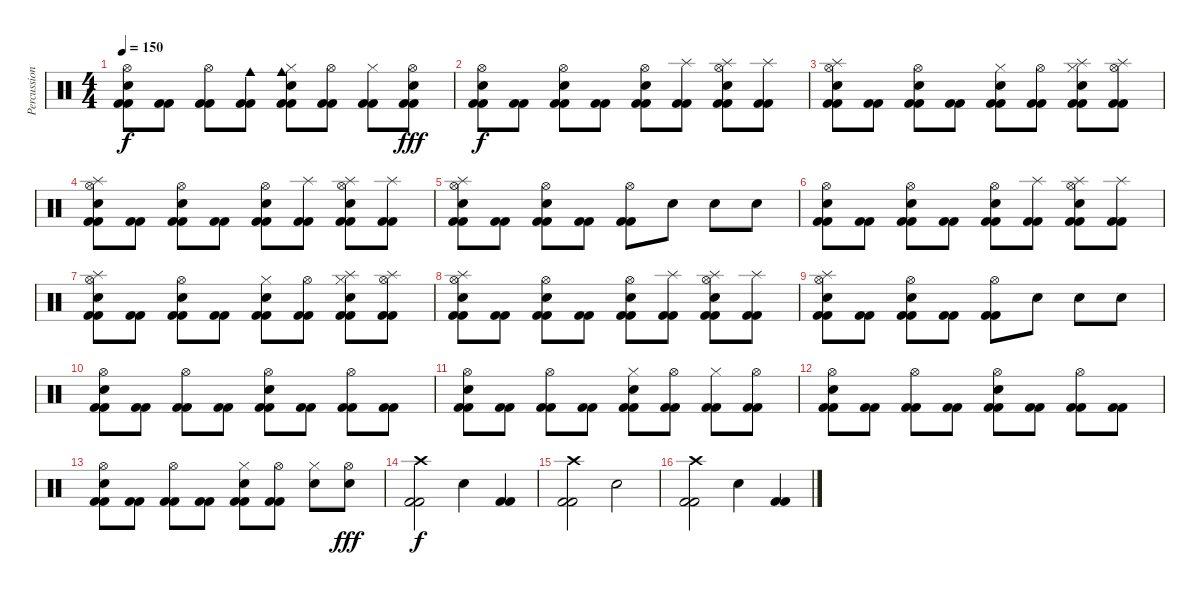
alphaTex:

\track ("Percussions" "Percussion") {instrument percussion}
\staff {score}
\articulation defaults
\ts (4 4)
\tempo 150
\clef neutral
\ks c
("Kick (hit) 2" "Kick (hit) 2" "Electric Snare (hit)" "Hi-Hat (open)").8{dy f} ("Kick (hit) 2" "Kick (hit) 2").8 ("Kick (hit) 2" "Kick (hit) 2" "Hi-Hat (open)").8 ("Kick (hit) 2" "Kick (hit) 2" "Cowbell medium (hit)").8 ("Kick (hit) 2" "Kick (hit) 2" "Electric Snare (hit)" "Cowbell medium (hit)" "Hi-Hat (closed)").8 ("Kick (hit) 2" "Kick (hit) 2" "Hi-Hat (open)").8 ("Kick (hit) 2" "Kick (hit) 2" "Hi-Hat (closed)").8 ("Kick (hit) 2" "Kick (hit) 2" "Electric Snare (hit)" "Hi-Hat (open)").8{dy fff} |
("Kick (hit) 2" "Kick (hit) 2" "Electric Snare (hit)" "Hi-Hat (open)").8{dy f} ("Kick (hit) 2" "Kick (hit) 2").8 ("Kick (hit) 2" "Kick (hit) 2" "Electric Snare (hit)" "Hi-Hat (open)").8 ("Kick (hit) 2" "Kick (hit) 2").8 ("Kick (hit) 2" "Kick (hit) 2" "Electric Snare (hit)" "Hi-Hat (open)").8 ("Kick (hit) 2" "Kick (hit) 2" "Splash (hit)").8 ("Kick (hit) 2" "Kick (hit) 2" "Electric Snare (hit)" "Splash (hit)" "Hi-Hat (open)").8 ("Kick (hit) 2" "Kick (hit) 2" "Splash (hit)").8 |
("Kick (hit) 2" "Kick (hit) 2" "Electric Snare (hit)" "Splash (hit)" "Hi-Hat (open)").8 ("Kick (hit) 2" "Kick (hit) 2").8 ("Kick (hit) 2" "Kick (hit) 2" "Electric Snare (hit)" "Hi-Hat (open)").8 ("Kick (hit) 2" "Kick (hit) 2").8 ("Kick (hit) 2" "Kick (hit) 2" "Electric Snare (hit)" "Hi-Hat (closed)").8 ("Kick (hit) 2" "Kick (hit) 2" "Hi-Hat (open)").8 ("Kick (hit) 2" "Kick (hit) 2" "Electric Snare (hit)" "Splash (hit)" "Hi-Hat (closed)").8 ("Kick (hit) 2" "Kick (hit) 2" "Splash (hit)" "Hi-Hat (open)").8 |
("Kick (hit) 2" "Kick (hit) 2" "Electric Snare (hit)" "Splash (hit)" "Hi-Hat (open)").8 ("Kick (hit) 2" "Kick (hit) 2").8 ("Kick (hit) 2" "Kick (hit) 2" "Electric Snare (hit)" "Hi-Hat (open)").8 ("Kick (hit) 2" "Kick (hit) 2").8 ("Kick (hit) 2" "Kick (hit) 2" "Electric Snare (hit)" "Hi-Hat (open)").8 ("Kick (hit) 2" "Kick (hit) 2" "Splash (hit)").8 ("Kick (hit) 2" "Kick (hit) 2" "Electric Snare (hit)" "Splash (hit)" "Hi-Hat (open)").8 ("Kick (hit) 2" "Kick (hit) 2" "Splash (hit)").8 |
("Kick (hit) 2" "Kick (hit) 2" "Electric Snare (hit)" "Splash (hit)" "Hi-Hat (open)").8 ("Kick (hit) 2" "Kick (hit) 2").8 ("Kick (hit) 2" "Kick (hit) 2" "Electric Snare (hit)" "Hi-Hat (open)").8 ("Kick (hit) 2" "Kick (hit) 2").8 ("Kick (hit) 2" "Kick (hit) 2" "Hi-Hat (open)").8 "Electric Snare (hit)".8 "Electric Snare (hit)".8 "Electric Snare (hit)".8 |
("Kick (hit) 2" "Kick (hit) 2" "Electric Snare (hit)" "Hi-Hat (open)").8 ("Kick (hit) 2" "Kick (hit) 2").8 ("Kick (hit) 2" "Kick (hit) 2" "Electric Snare (hit)" "Hi-Hat (open)").8 ("Kick (hit) 2" "Kick (hit) 2").8 ("Kick (hit) 2" "Kick (hit) 2" "Electric Snare (hit)" "Hi-Hat (open)").8 ("Kick (hit) 2" "Kick (hit) 2" "Splash (hit)").8 ("Kick (hit) 2" "Kick (hit) 2" "Electric Snare (hit)" "Splash (hit)" "Hi-Hat (open)").8 ("Kick (hit) 2" "Kick (hit) 2" "Splash (hit)").8 |
("Kick (hit) 2" "Kick (hit) 2" "Electric Snare (hit)" "Splash (hit)" "Hi-Hat (open)").8 ("Kick (hit) 2" "Kick (hit) 2").8 ("Kick (hit) 2" "Kick (hit) 2" "Electric Snare (hit)" "Hi-Hat (open)").8 ("Kick (hit) 2" "Kick (hit) 2").8 ("Kick (hit) 2" "Kick (hit) 2" "Electric Snare (hit)" "Hi-Hat (closed)").8 ("Kick (hit) 2" "Kick (hit) 2" "Hi-Hat (open)").8 ("Kick (hit) 2" "Kick (hit) 2" "Electric Snare (hit)" "Splash (hit)" "Hi-Hat (closed)").8 ("Kick (hit) 2" "Kick (hit) 2" "Splash (hit)" "Hi-Hat (open)").8 |
("Kick (hit) 2" "Kick (hit) 2" "Electric Snare (hit)" "Splash (hit)" "Hi-Hat (open)").8 ("Kick (hit) 2" "Kick (hit) 2").8 ("Kick (hit) 2" "Kick (hit) 2" "Electric Snare (hit)" "Hi-Hat (open)").8 ("Kick (hit) 2" "Kick (hit) 2").8 ("Kick (hit) 2" "Kick (hit) 2" "Electric Snare (hit)" "Hi-Hat (open)").8 ("Kick (hit) 2" "Kick (hit) 2" "Splash (hit)").8 ("Kick (hit) 2" "Kick (hit) 2" "Electric Snare (hit)" "Splash (hit)" "Hi-Hat (open)").8 ("Kick (hit) 2" "Kick (hit) 2" "Splash (hit)").8 |
("Kick (hit) 2" "Kick (hit) 2" "Electric Snare (hit)" "Splash (hit)" "Hi-Hat (open)").8 ("Kick (hit) 2" "Kick (hit) 2").8 ("Kick (hit) 2" "Kick (hit) 2" "Electric Snare (hit)" "Hi-Hat (open)").8 ("Kick (hit) 2" "Kick (hit) 2").8 ("Kick (hit) 2" "Kick (hit) 2" "Hi-Hat (open)").8 "Electric Snare (hit)".8 "Electric Snare (hit)".8 "Electric Snare (hit)".8 |
("Kick (hit) 2" "Kick (hit) 2" "Electric Snare (hit)" "Hi-Hat (open)").8 ("Kick (hit) 2" "Kick (hit) 2").8 ("Kick (hit) 2" "Kick (hit) 2" "Hi-Hat (open)").8 ("Kick (hit) 2" "Kick (hit) 2").8 ("Kick (hit) 2" "Kick (hit) 2" "Electric Snare (hit)" "Hi-Hat (open)").8 ("Kick (hit) 2" "Kick (hit) 2").8 ("Kick (hit) 2" "Kick (hit) 2" "Hi-Hat (open)").8 ("Kick (hit) 2" "Kick (hit) 2").8 |
("Kick (hit) 2" "Kick (hit) 2" "Electric Snare (hit)" "Hi-Hat (open)").8 ("Kick (hit) 2" "Kick (hit) 2").8 ("Kick (hit) 2" "Kick (hit) 2" "Hi-Hat (open)").8 ("Kick (hit) 2" "Kick (hit) 2").8 ("Kick (hit) 2" "Kick (hit) 2" "Electric Snare (hit)" "Hi-Hat (closed)").8 ("Kick (hit) 2" "Kick (hit) 2" "Hi-Hat (open)").8 ("Kick (hit) 2" "Kick (hit) 2" "Hi-Hat (closed)").8 ("Kick (hit) 2" "Kick (hit) 2" "Hi-Hat (open)").8 |
("Kick (hit) 2" "Kick (hit) 2" "Electric Snare (hit)" "Hi-Hat (open)").8 ("Kick (hit) 2" "Kick (hit) 2").8 ("Kick (hit) 2" "Kick (hit) 2" "Hi-Hat (open)").8 ("Kick (hit) 2" "Kick (hit) 2").8 ("Kick (hit) 2" "Kick (hit) 2" "Electric Snare (hit)" "Hi-Hat (open)").8 ("Kick (hit) 2" "Kick (hit) 2").8 ("Kick (hit) 2" "Kick (hit) 2" "Hi-Hat (open)").8 ("Kick (hit) 2" "Kick (hit) 2").8 |
("Kick (hit) 2" "Kick (hit) 2" "Electric Snare (hit)" "Hi-Hat (open)").8 ("Kick (hit) 2" "Kick (hit) 2").8 ("Kick (hit) 2" "Kick (hit) 2" "Hi-Hat (open)").8 ("Kick (hit) 2" "Kick (hit) 2").8 ("Kick (hit) 2" "Kick (hit) 2" "Electric Snare (hit)" "Hi-Hat (closed)").8 ("Kick (hit) 2" "Kick (hit) 2" "Hi-Hat (open)").8 ("Electric Snare (hit)" "Hi-Hat (closed)").8 ("Electric Snare (hit)" "Hi-Hat (open)").8{dy fff} |
("Kick (hit) 2" "Kick (hit) 2" "Crash high (hit)").2{dy f} "Electric Snare (hit)".4 ("Kick (hit) 2" "Kick (hit) 2").4 |
("Kick (hit) 2" "Kick (hit) 2" "Crash high (hit)").2 "Electric Snare (hit)".2 |
("Kick (hit) 2" "Kick (hit) 2" "Crash high (hit)").2 "Electric Snare (hit)".4 ("Kick (hit) 2" "Kick (hit) 2").4
